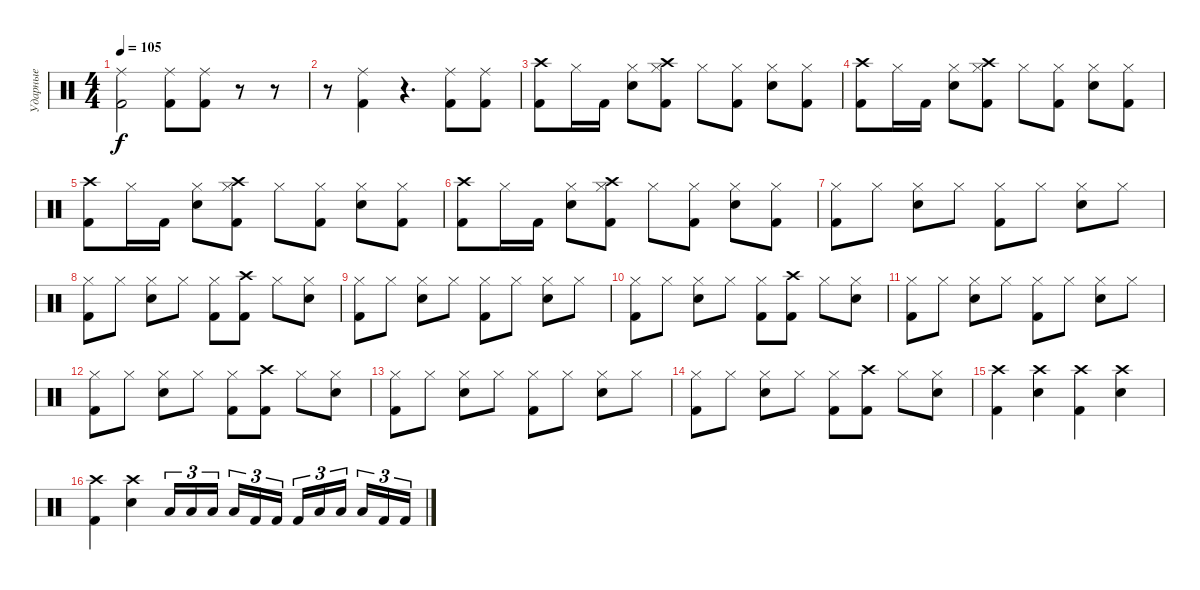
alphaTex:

\track ("Ударные" "Ударные") {instrument percussion}
\staff {score}
\articulation defaults
\ts (4 4)
\tempo 105
\clef neutral
\ks c
("Kick (hit) 2" "Ride (middle)").2{dy f} ("Kick (hit) 2" "Ride (middle)").8 ("Kick (hit) 2" "Ride (middle)").8 r.8 r.8 |
r.8 ("Ride (middle)" "Kick (hit) 2").4 r.4{d} ("Ride (middle)" "Kick (hit) 2").8 ("Kick (hit) 2" "Ride (middle)").8 |
("Crash high (hit)" "Kick (hit) 2").8 "Hi-Hat (closed)".16 "Kick (hit) 2".16 ("Hi-Hat (closed)" "Electric Snare (hit)").8 ("Kick (hit) 2" "Hi-Hat (closed)" "Crash high (hit)").8 "Hi-Hat (closed)".8 ("Kick (hit) 2" "Hi-Hat (closed)").8 ("Electric Snare (hit)" "Hi-Hat (closed)").8 ("Kick (hit) 2" "Hi-Hat (closed)").8 |
("Crash high (hit)" "Kick (hit) 2").8 "Hi-Hat (closed)".16 "Kick (hit) 2".16 ("Hi-Hat (closed)" "Electric Snare (hit)").8 ("Kick (hit) 2" "Hi-Hat (closed)" "Crash high (hit)").8 "Hi-Hat (closed)".8 ("Kick (hit) 2" "Hi-Hat (closed)").8 ("Electric Snare (hit)" "Hi-Hat (closed)").8 ("Kick (hit) 2" "Hi-Hat (closed)").8 |
("Crash high (hit)" "Kick (hit) 2").8 "Hi-Hat (closed)".16 "Kick (hit) 2".16 ("Hi-Hat (closed)" "Electric Snare (hit)").8 ("Kick (hit) 2" "Hi-Hat (closed)" "Crash high (hit)").8 "Hi-Hat (closed)".8 ("Kick (hit) 2" "Hi-Hat (closed)").8 ("Electric Snare (hit)" "Hi-Hat (closed)").8 ("Kick (hit) 2" "Hi-Hat (closed)").8 |
("Crash high (hit)" "Kick (hit) 2").8 "Hi-Hat (closed)".16 "Kick (hit) 2".16 ("Hi-Hat (closed)" "Electric Snare (hit)").8 ("Kick (hit) 2" "Hi-Hat (closed)" "Crash high (hit)").8 "Hi-Hat (closed)".8 ("Kick (hit) 2" "Hi-Hat (closed)").8 ("Electric Snare (hit)" "Hi-Hat (closed)").8 ("Kick (hit) 2" "Hi-Hat (closed)").8 |
("Kick (hit) 2" "Hi-Hat (closed)").8 "Hi-Hat (closed)".8 ("Electric Snare (hit)" "Hi-Hat (closed)").8 "Hi-Hat (closed)".8 ("Kick (hit) 2" "Hi-Hat (closed)").8 "Hi-Hat (closed)".8 ("Electric Snare (hit)" "Hi-Hat (closed)").8 "Hi-Hat (closed)".8 |
("Kick (hit) 2" "Hi-Hat (closed)").8 "Hi-Hat (closed)".8 ("Electric Snare (hit)" "Hi-Hat (closed)").8 "Hi-Hat (closed)".8 ("Kick (hit) 2" "Hi-Hat (closed)").8 ("Crash high (hit)" "Kick (hit) 2").8 "Hi-Hat (closed)".8 ("Electric Snare (hit)" "Hi-Hat (closed)").8 |
("Kick (hit) 2" "Hi-Hat (closed)").8 "Hi-Hat (closed)".8 ("Electric Snare (hit)" "Hi-Hat (closed)").8 "Hi-Hat (closed)".8 ("Kick (hit) 2" "Hi-Hat (closed)").8 "Hi-Hat (closed)".8 ("Electric Snare (hit)" "Hi-Hat (closed)").8 "Hi-Hat (closed)".8 |
("Kick (hit) 2" "Hi-Hat (closed)").8 "Hi-Hat (closed)".8 ("Electric Snare (hit)" "Hi-Hat (closed)").8 "Hi-Hat (closed)".8 ("Kick (hit) 2" "Hi-Hat (closed)").8 ("Crash high (hit)" "Kick (hit) 2").8 "Hi-Hat (closed)".8 ("Electric Snare (hit)" "Hi-Hat (closed)").8 |
("Kick (hit) 2" "Hi-Hat (closed)").8 "Hi-Hat (closed)".8 ("Electric Snare (hit)" "Hi-Hat (closed)").8 "Hi-Hat (closed)".8 ("Kick (hit) 2" "Hi-Hat (closed)").8 "Hi-Hat (closed)".8 ("Electric Snare (hit)" "Hi-Hat (closed)").8 "Hi-Hat (closed)".8 |
("Kick (hit) 2" "Hi-Hat (closed)").8 "Hi-Hat (closed)".8 ("Electric Snare (hit)" "Hi-Hat (closed)").8 "Hi-Hat (closed)".8 ("Kick (hit) 2" "Hi-Hat (closed)").8 ("Crash high (hit)" "Kick (hit) 2").8 "Hi-Hat (closed)".8 ("Electric Snare (hit)" "Hi-Hat (closed)").8 |
("Kick (hit) 2" "Hi-Hat (closed)").8 "Hi-Hat (closed)".8 ("Electric Snare (hit)" "Hi-Hat (closed)").8 "Hi-Hat (closed)".8 ("Kick (hit) 2" "Hi-Hat (closed)").8 "Hi-Hat (closed)".8 ("Electric Snare (hit)" "Hi-Hat (closed)").8 "Hi-Hat (closed)".8 |
("Kick (hit) 2" "Hi-Hat (closed)").8 "Hi-Hat (closed)".8 ("Electric Snare (hit)" "Hi-Hat (closed)").8 "Hi-Hat (closed)".8 ("Kick (hit) 2" "Hi-Hat (closed)").8 ("Crash high (hit)" "Kick (hit) 2").8 "Hi-Hat (closed)".8 ("Electric Snare (hit)" "Hi-Hat (closed)").8 |
("Crash high (hit)" "Kick (hit) 2").4 ("Crash high (hit)" "Electric Snare (hit)").4 ("Kick (hit) 2" "Crash high (hit)").4 ("Crash high (hit)" "Electric Snare (hit)").4 |
("Crash high (hit)" "Kick (hit) 2").4 ("Crash high (hit)" "Electric Snare (hit)").4 "Low Tom (hit)".16{tu (3 2)} "Low Tom (hit)".16{tu (3 2)} "Low Tom (hit)".16{tu (3 2) beam splitsecondary} "Low Tom (hit)".16{tu (3 2)} "Kick (hit) 2".16{tu (3 2)} "Kick (hit) 2".16{tu (3 2)} "Kick (hit) 2".16{tu (3 2)} "Low Tom (hit)".16{tu (3 2)} "Low Tom (hit)".16{tu (3 2) beam splitsecondary} "Low Tom (hit)".16{tu (3 2)} "Kick (hit) 2".16{tu (3 2)} "Kick (hit) 2".16{tu (3 2)}
